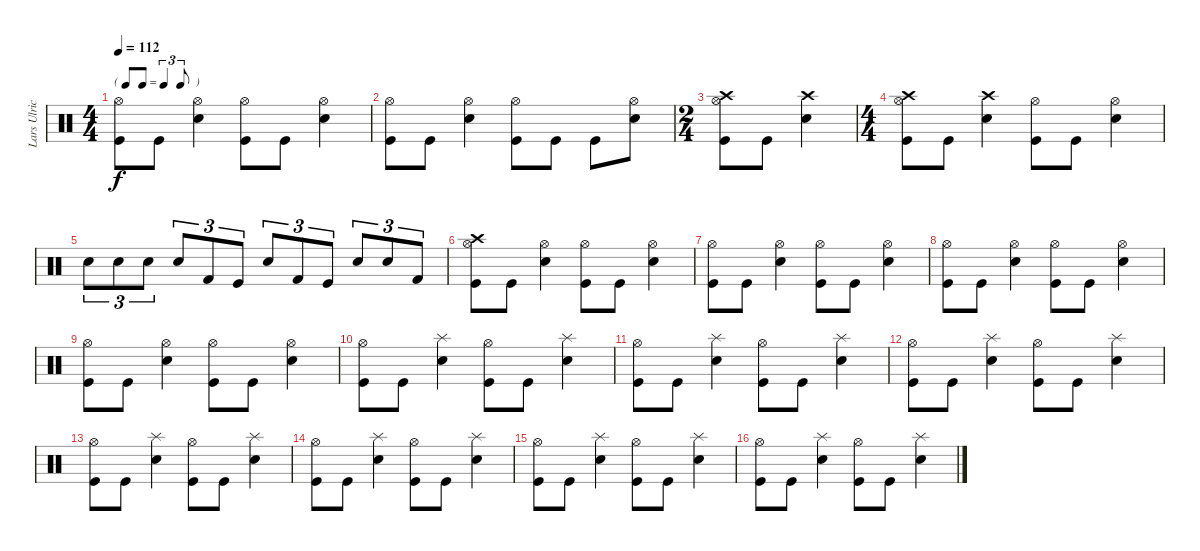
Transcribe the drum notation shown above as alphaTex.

\track ("Lars Ulrich (Drums)" "Lars Ulric") {instrument percussion}
\staff {score}
\articulation defaults
\ts (4 4)
\tf triplet8th
\tempo 112
\clef neutral
\ks c
("Hi-Hat (open)" "Kick (hit)").8{dy f} "Kick (hit)".8 ("Hi-Hat (open)" "Electric Snare (hit)").4 ("Hi-Hat (open)" "Kick (hit)").8 "Kick (hit)".8 ("Hi-Hat (open)" "Electric Snare (hit)").4 |
("Hi-Hat (open)" "Kick (hit)").8 "Kick (hit)".8 ("Hi-Hat (open)" "Electric Snare (hit)").4 ("Hi-Hat (open)" "Kick (hit)").8 "Kick (hit)".8 "Kick (hit)".8 ("Hi-Hat (open)" "Electric Snare (hit)").8 |
\ts (2 4)
("Hi-Hat (open)" "Crash high (hit)" "Kick (hit)").8 "Kick (hit)".8 ("Crash high (hit)" "Electric Snare (hit)").4 |
\ts (4 4)
("Hi-Hat (open)" "Crash high (hit)" "Kick (hit)").8 "Kick (hit)".8 ("Crash high (hit)" "Electric Snare (hit)").4 ("Hi-Hat (open)" "Kick (hit)").8 "Kick (hit)".8 ("Hi-Hat (open)" "Electric Snare (hit)").4 |
"Electric Snare (hit)".8{tu (3 2)} "Electric Snare (hit)".8{tu (3 2)} "Electric Snare (hit)".8{tu (3 2)} "Snare (hit) 2".8{tu (3 2)} "Kick (hit) 2".8{tu (3 2)} "Kick (hit)".8{tu (3 2)} "Electric Snare (hit)".8{tu (3 2)} "Kick (hit) 2".8{tu (3 2)} "Kick (hit)".8{tu (3 2)} "Electric Snare (hit)".8{tu (3 2)} "Snare (hit) 2".8{tu (3 2)} "Kick (hit) 2".8{tu (3 2)} |
("Hi-Hat (open)" "Crash high (hit)" "Kick (hit)").8 "Kick (hit)".8 ("Hi-Hat (open)" "Electric Snare (hit)").4 ("Hi-Hat (open)" "Kick (hit)").8 "Kick (hit)".8 ("Hi-Hat (open)" "Electric Snare (hit)").4 |
("Hi-Hat (open)" "Kick (hit)").8 "Kick (hit)".8 ("Hi-Hat (open)" "Electric Snare (hit)").4 ("Hi-Hat (open)" "Kick (hit)").8 "Kick (hit)".8 ("Hi-Hat (open)" "Electric Snare (hit)").4 |
("Hi-Hat (open)" "Kick (hit)").8 "Kick (hit)".8 ("Hi-Hat (open)" "Electric Snare (hit)").4 ("Hi-Hat (open)" "Kick (hit)").8 "Kick (hit)".8 ("Hi-Hat (open)" "Electric Snare (hit)").4 |
("Hi-Hat (open)" "Kick (hit)").8 "Kick (hit)".8 ("Hi-Hat (open)" "Electric Snare (hit)").4 ("Hi-Hat (open)" "Kick (hit)").8 "Kick (hit)".8 ("Hi-Hat (open)" "Electric Snare (hit)").4 |
("Hi-Hat (open)" "Kick (hit)").8 "Kick (hit)".8 ("Splash (hit)" "Electric Snare (hit)").4 ("Hi-Hat (open)" "Kick (hit)").8 "Kick (hit)".8 ("Splash (hit)" "Electric Snare (hit)").4 |
("Hi-Hat (open)" "Kick (hit)").8 "Kick (hit)".8 ("Splash (hit)" "Electric Snare (hit)").4 ("Hi-Hat (open)" "Kick (hit)").8 "Kick (hit)".8 ("Splash (hit)" "Electric Snare (hit)").4 |
("Hi-Hat (open)" "Kick (hit)").8 "Kick (hit)".8 ("Splash (hit)" "Electric Snare (hit)").4 ("Hi-Hat (open)" "Kick (hit)").8 "Kick (hit)".8 ("Splash (hit)" "Electric Snare (hit)").4 |
("Hi-Hat (open)" "Kick (hit)").8 "Kick (hit)".8 ("Splash (hit)" "Electric Snare (hit)").4 ("Hi-Hat (open)" "Kick (hit)").8 "Kick (hit)".8 ("Splash (hit)" "Electric Snare (hit)").4 |
("Hi-Hat (open)" "Kick (hit)").8 "Kick (hit)".8 ("Splash (hit)" "Electric Snare (hit)").4 ("Hi-Hat (open)" "Kick (hit)").8 "Kick (hit)".8 ("Splash (hit)" "Electric Snare (hit)").4 |
("Hi-Hat (open)" "Kick (hit)").8 "Kick (hit)".8 ("Splash (hit)" "Electric Snare (hit)").4 ("Hi-Hat (open)" "Kick (hit)").8 "Kick (hit)".8 ("Splash (hit)" "Electric Snare (hit)").4 |
("Hi-Hat (open)" "Kick (hit)").8 "Kick (hit)".8 ("Splash (hit)" "Electric Snare (hit)").4 ("Hi-Hat (open)" "Kick (hit)").8 "Kick (hit)".8 ("Splash (hit)" "Electric Snare (hit)").4
